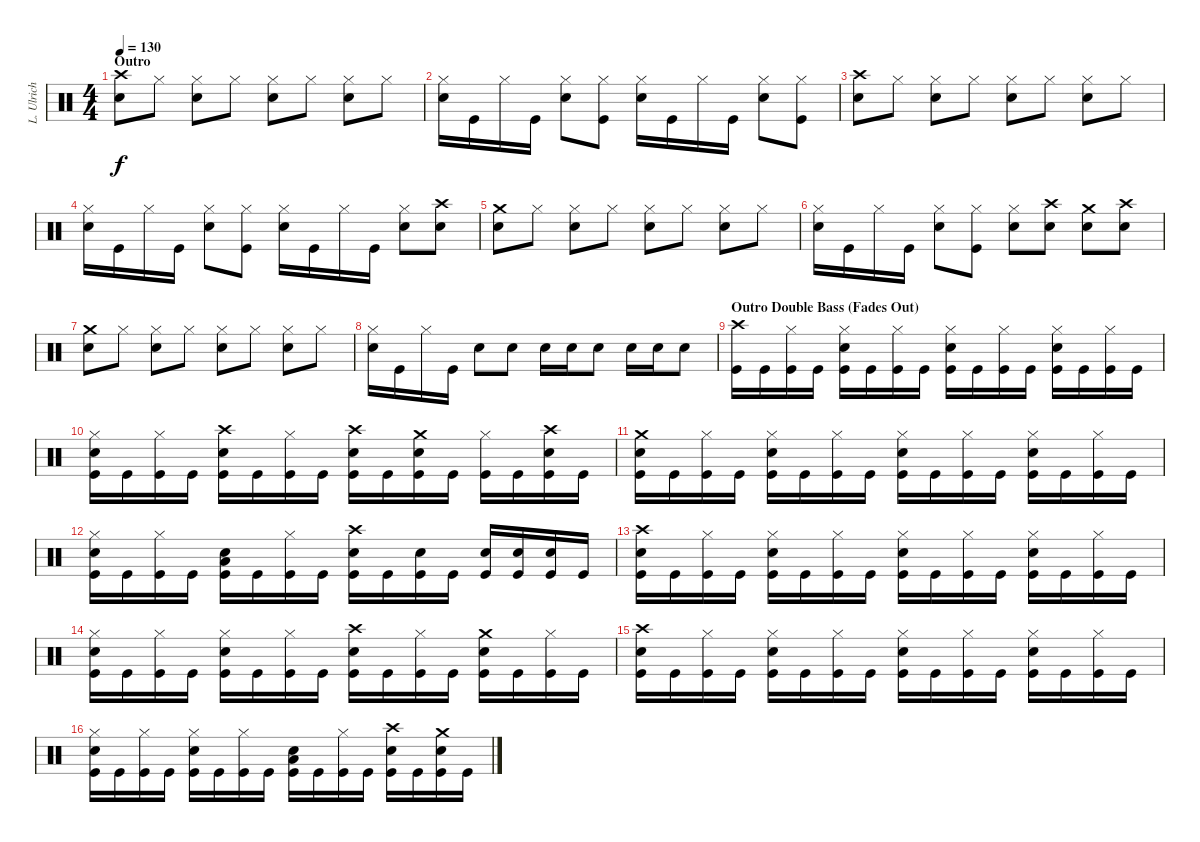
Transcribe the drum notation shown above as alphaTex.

\track ("L. Ulrich" "L. Ulrich") {instrument percussion}
\staff {score}
\articulation defaults
\ts (4 4)
\section ("" "Outro")
\tempo 130
\clef neutral
\ks c
("Crash high (hit)" "Snare (hit) 2").8{dy f} "Hi-Hat (closed)".8 ("Hi-Hat (closed)" "Snare (hit) 2").8 "Hi-Hat (closed)".8 ("Hi-Hat (closed)" "Snare (hit) 2").8 "Hi-Hat (closed)".8 ("Hi-Hat (closed)" "Snare (hit) 2").8 "Hi-Hat (closed)".8 |
("Hi-Hat (closed)" "Snare (hit) 2").16 "Kick (hit)".16 "Hi-Hat (closed)".16 "Kick (hit)".16 ("Hi-Hat (closed)" "Snare (hit) 2").8 ("Hi-Hat (closed)" "Kick (hit)").8 ("Hi-Hat (closed)" "Snare (hit) 2").16 "Kick (hit)".16 "Hi-Hat (closed)".16 "Kick (hit)".16 ("Hi-Hat (closed)" "Snare (hit) 2").8 ("Hi-Hat (closed)" "Kick (hit)").8 |
("Crash high (hit)" "Snare (hit) 2").8 "Hi-Hat (closed)".8 ("Hi-Hat (closed)" "Snare (hit) 2").8 "Hi-Hat (closed)".8 ("Hi-Hat (closed)" "Snare (hit) 2").8 "Hi-Hat (closed)".8 ("Hi-Hat (closed)" "Snare (hit) 2").8 "Hi-Hat (closed)".8 |
("Hi-Hat (closed)" "Snare (hit) 2").16 "Kick (hit)".16 "Hi-Hat (closed)".16 "Kick (hit)".16 ("Hi-Hat (closed)" "Snare (hit) 2").8 ("Hi-Hat (closed)" "Kick (hit)").8 ("Hi-Hat (closed)" "Snare (hit) 2").16 "Kick (hit)".16 "Hi-Hat (closed)".16 "Kick (hit)".16 ("Hi-Hat (closed)" "Snare (hit) 2").8 ("Crash high (hit)" "Snare (hit) 2").8 |
("Crash medium (hit)" "Snare (hit) 2").8 "Hi-Hat (closed)".8 ("Hi-Hat (closed)" "Snare (hit) 2").8 "Hi-Hat (closed)".8 ("Hi-Hat (closed)" "Snare (hit) 2").8 "Hi-Hat (closed)".8 ("Hi-Hat (closed)" "Snare (hit) 2").8 "Hi-Hat (closed)".8 |
("Hi-Hat (closed)" "Snare (hit) 2").16 "Kick (hit)".16 "Hi-Hat (closed)".16 "Kick (hit)".16 ("Hi-Hat (closed)" "Snare (hit) 2").8 ("Hi-Hat (closed)" "Kick (hit)").8 ("Hi-Hat (closed)" "Snare (hit) 2").8 ("Crash high (hit)" "Snare (hit) 2").8 ("Crash medium (hit)" "Snare (hit) 2").8 ("Crash high (hit)" "Snare (hit) 2").8 |
("Crash medium (hit)" "Snare (hit) 2").8 "Hi-Hat (closed)".8 ("Hi-Hat (closed)" "Snare (hit) 2").8 "Hi-Hat (closed)".8 ("Hi-Hat (closed)" "Snare (hit) 2").8 "Hi-Hat (closed)".8 ("Hi-Hat (closed)" "Snare (hit) 2").8 "Hi-Hat (closed)".8 |
("Hi-Hat (closed)" "Snare (hit) 2").16 "Kick (hit)".16 "Hi-Hat (closed)".16 "Kick (hit)".16 "Snare (hit) 2".8 "Snare (hit) 2".8 "Snare (hit) 2".16 "Snare (hit) 2".16 "Snare (hit) 2".8 "Snare (hit) 2".16 "Snare (hit) 2".16 "Snare (hit) 2".8 |
\section ("" "Outro Double Bass (Fades Out)")
("Crash high (hit)" "Kick (hit)").16 "Kick (hit)".16 ("Hi-Hat (closed)" "Kick (hit)").16 "Kick (hit)".16 ("Hi-Hat (closed)" "Snare (hit) 2" "Kick (hit)").16 "Kick (hit)".16 ("Hi-Hat (closed)" "Kick (hit)").16 "Kick (hit)".16 ("Hi-Hat (closed)" "Snare (hit) 2" "Kick (hit)").16 "Kick (hit)".16 ("Hi-Hat (closed)" "Kick (hit)").16 "Kick (hit)".16 ("Hi-Hat (closed)" "Snare (hit) 2" "Kick (hit)").16 "Kick (hit)".16 ("Hi-Hat (closed)" "Kick (hit)").16 "Kick (hit)".16 |
("Hi-Hat (closed)" "Snare (hit) 2" "Kick (hit)").16 "Kick (hit)".16 ("Hi-Hat (closed)" "Kick (hit)").16 "Kick (hit)".16 ("Crash high (hit)" "Snare (hit) 2" "Kick (hit)").16 "Kick (hit)".16 ("Hi-Hat (closed)" "Kick (hit)").16 "Kick (hit)".16 ("Crash high (hit)" "Snare (hit) 2" "Kick (hit)").16 "Kick (hit)".16 ("Crash medium (hit)" "Snare (hit) 2" "Kick (hit)").16 "Kick (hit)".16 ("Hi-Hat (closed)" "Kick (hit)").16 "Kick (hit)".16 ("Crash high (hit)" "Snare (hit) 2" "Kick (hit)").16 "Kick (hit)".16 |
("Crash medium (hit)" "Snare (hit) 2" "Kick (hit)").16 "Kick (hit)".16 ("Hi-Hat (closed)" "Kick (hit)").16 "Kick (hit)".16 ("Hi-Hat (closed)" "Snare (hit) 2" "Kick (hit)").16 "Kick (hit)".16 ("Hi-Hat (closed)" "Kick (hit)").16 "Kick (hit)".16 ("Hi-Hat (closed)" "Snare (hit) 2" "Kick (hit)").16 "Kick (hit)".16 ("Hi-Hat (closed)" "Kick (hit)").16 "Kick (hit)".16 ("Hi-Hat (closed)" "Snare (hit) 2" "Kick (hit)").16 "Kick (hit)".16 ("Hi-Hat (closed)" "Kick (hit)").16 "Kick (hit)".16 |
("Hi-Hat (closed)" "Snare (hit) 2" "Kick (hit)").16 "Kick (hit)".16 ("Hi-Hat (closed)" "Kick (hit)").16 "Kick (hit)".16 ("Low Tom (hit)" "Snare (hit) 2" "Kick (hit)").16 "Kick (hit)".16 ("Hi-Hat (closed)" "Kick (hit)").16 "Kick (hit)".16 ("Crash high (hit)" "Snare (hit) 2" "Kick (hit)").16 "Kick (hit)".16 ("Snare (hit) 2" "Kick (hit)").16 "Kick (hit)".16 ("Snare (hit) 2" "Kick (hit)").16 ("Snare (hit) 2" "Kick (hit)").16 ("Snare (hit) 2" "Kick (hit)").16 "Kick (hit)".16 |
("Crash high (hit)" "Snare (hit) 2" "Kick (hit)").16 "Kick (hit)".16 ("Hi-Hat (closed)" "Kick (hit)").16 "Kick (hit)".16 ("Hi-Hat (closed)" "Snare (hit) 2" "Kick (hit)").16 "Kick (hit)".16 ("Hi-Hat (closed)" "Kick (hit)").16 "Kick (hit)".16 ("Hi-Hat (closed)" "Snare (hit) 2" "Kick (hit)").16 "Kick (hit)".16 ("Hi-Hat (closed)" "Kick (hit)").16 "Kick (hit)".16 ("Hi-Hat (closed)" "Snare (hit) 2" "Kick (hit)").16 "Kick (hit)".16 ("Hi-Hat (closed)" "Kick (hit)").16 "Kick (hit)".16 |
("Hi-Hat (closed)" "Snare (hit) 2" "Kick (hit)").16 "Kick (hit)".16 ("Hi-Hat (closed)" "Kick (hit)").16 "Kick (hit)".16 ("Hi-Hat (closed)" "Snare (hit) 2" "Kick (hit)").16 "Kick (hit)".16 ("Hi-Hat (closed)" "Kick (hit)").16 "Kick (hit)".16 ("Crash high (hit)" "Snare (hit) 2" "Kick (hit)").16 "Kick (hit)".16 ("Hi-Hat (closed)" "Kick (hit)").16 "Kick (hit)".16 ("Crash medium (hit)" "Snare (hit) 2" "Kick (hit)").16 "Kick (hit)".16 ("Hi-Hat (closed)" "Kick (hit)").16 "Kick (hit)".16 |
("Crash high (hit)" "Snare (hit) 2" "Kick (hit)").16 "Kick (hit)".16 ("Hi-Hat (closed)" "Kick (hit)").16 "Kick (hit)".16 ("Hi-Hat (closed)" "Snare (hit) 2" "Kick (hit)").16 "Kick (hit)".16 ("Hi-Hat (closed)" "Kick (hit)").16 "Kick (hit)".16 ("Hi-Hat (closed)" "Snare (hit) 2" "Kick (hit)").16 "Kick (hit)".16 ("Hi-Hat (closed)" "Kick (hit)").16 "Kick (hit)".16 ("Hi-Hat (closed)" "Snare (hit) 2" "Kick (hit)").16 "Kick (hit)".16 ("Hi-Hat (closed)" "Kick (hit)").16 "Kick (hit)".16 |
("Hi-Hat (closed)" "Snare (hit) 2" "Kick (hit)").16 "Kick (hit)".16 ("Hi-Hat (closed)" "Kick (hit)").16 "Kick (hit)".16 ("Hi-Hat (closed)" "Snare (hit) 2" "Kick (hit)").16 "Kick (hit)".16 ("Hi-Hat (closed)" "Kick (hit)").16 "Kick (hit)".16 ("Low Tom (hit)" "Snare (hit) 2" "Kick (hit)").16 "Kick (hit)".16 ("Hi-Hat (closed)" "Kick (hit)").16 "Kick (hit)".16 ("Crash high (hit)" "Snare (hit) 2" "Kick (hit)").16 "Kick (hit)".16 ("Crash medium (hit)" "Snare (hit) 2" "Kick (hit)").16 "Kick (hit)".16
